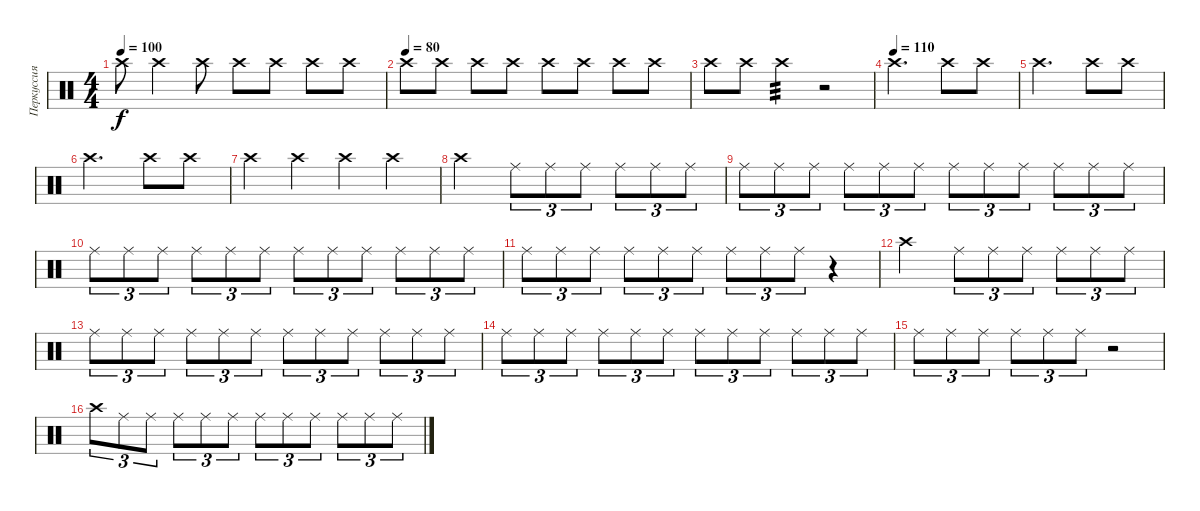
\track ("Перкуссия" "Перкуссия") {instrument percussion}
\staff {score}
\articulation defaults
\ts (4 4)
\tempo 100
\clef neutral
\ks c "Crash high (hit)".8{dy f} "Crash high (hit)".4 "Crash high (hit)".8 "Crash high (hit)".8 "Crash high (hit)".8 "Crash high (hit)".8 "Crash high (hit)".8
|
\tempo (80)
"Crash high (hit)".8 "Crash high (hit)".8 "Crash high (hit)".8 "Crash high (hit)".8 "Crash high (hit)".8 "Crash high (hit)".8 "Crash high (hit)".8 "Crash high (hit)".8 |
"Crash high (hit)".8 "Crash high (hit)".8 "Crash high (hit)".4{tp 3} r.2 |
\tempo (110)
"Crash high (hit)".2{d} "Crash high (hit)".8 "Crash high (hit)".8 |
"Crash high (hit)".2{d} "Crash high (hit)".8 "Crash high (hit)".8 |
"Crash high (hit)".2{d} "Crash high (hit)".8 "Crash high (hit)".8 |
"Crash high (hit)".4 "Crash high (hit)".4 "Crash high (hit)".4 "Crash high (hit)".4 |
"Crash high (hit)".2 "Ride (middle)".8{tu (3 2)} "Ride (middle)".8{tu (3 2)} "Ride (middle)".8{tu (3 2)} "Ride (middle)".8{tu (3 2)} "Ride (middle)".8{tu (3 2)} "Ride (middle)".8{tu (3 2)} |
"Ride (middle)".8{tu (3 2)} "Ride (middle)".8{tu (3 2)} "Ride (middle)".8{tu (3 2)} "Ride (middle)".8{tu (3 2)} "Ride (middle)".8{tu (3 2)} "Ride (middle)".8{tu (3 2)} "Ride (middle)".8{tu (3 2)} "Ride (middle)".8{tu (3 2)} "Ride (middle)".8{tu (3 2)} "Ride (middle)".8{tu (3 2)} "Ride (middle)".8{tu (3 2)} "Ride (middle)".8{tu (3 2)} |
"Ride (middle)".8{tu (3 2)} "Ride (middle)".8{tu (3 2)} "Ride (middle)".8{tu (3 2)} "Ride (middle)".8{tu (3 2)} "Ride (middle)".8{tu (3 2)} "Ride (middle)".8{tu (3 2)} "Ride (middle)".8{tu (3 2)} "Ride (middle)".8{tu (3 2)} "Ride (middle)".8{tu (3 2)} "Ride (middle)".8{tu (3 2)} "Ride (middle)".8{tu (3 2)} "Ride (middle)".8{tu (3 2)} |
"Ride (middle)".8{tu (3 2)} "Ride (middle)".8{tu (3 2)} "Ride (middle)".8{tu (3 2)} "Ride (middle)".8{tu (3 2)} "Ride (middle)".8{tu (3 2)} "Ride (middle)".8{tu (3 2)} "Ride (middle)".8{tu (3 2)} "Ride (middle)".8{tu (3 2)} "Ride (middle)".8{tu (3 2)} r.4 |
"Crash high (hit)".2 "Ride (middle)".8{tu (3 2)} "Ride (middle)".8{tu (3 2)} "Ride (middle)".8{tu (3 2)} "Ride (middle)".8{tu (3 2)} "Ride (middle)".8{tu (3 2)} "Ride (middle)".8{tu (3 2)} |
"Ride (middle)".8{tu (3 2)} "Ride (middle)".8{tu (3 2)} "Ride (middle)".8{tu (3 2)} "Ride (middle)".8{tu (3 2)} "Ride (middle)".8{tu (3 2)} "Ride (middle)".8{tu (3 2)} "Ride (middle)".8{tu (3 2)} "Ride (middle)".8{tu (3 2)} "Ride (middle)".8{tu (3 2)} "Ride (middle)".8{tu (3 2)} "Ride (middle)".8{tu (3 2)} "Ride (middle)".8{tu (3 2)} |
"Ride (middle)".8{tu (3 2)} "Ride (middle)".8{tu (3 2)} "Ride (middle)".8{tu (3 2)} "Ride (middle)".8{tu (3 2)} "Ride (middle)".8{tu (3 2)} "Ride (middle)".8{tu (3 2)} "Ride (middle)".8{tu (3 2)} "Ride (middle)".8{tu (3 2)} "Ride (middle)".8{tu (3 2)} "Ride (middle)".8{tu (3 2)} "Ride (middle)".8{tu (3 2)} "Ride (middle)".8{tu (3 2)} |
"Ride (middle)".8{tu (3 2)} "Ride (middle)".8{tu (3 2)} "Ride (middle)".8{tu (3 2)} "Ride (middle)".8{tu (3 2)} "Ride (middle)".8{tu (3 2)} "Ride (middle)".8{tu (3 2)} r.2 |
"Crash high (hit)".8{tu (3 2)} "Ride (middle)".8{tu (3 2)} "Ride (middle)".8{tu (3 2)} "Ride (middle)".8{tu (3 2)} "Ride (middle)".8{tu (3 2)} "Ride (middle)".8{tu (3 2)} "Ride (middle)".8{tu (3 2)} "Ride (middle)".8{tu (3 2)} "Ride (middle)".8{tu (3 2)} "Ride (middle)".8{tu (3 2)} "Ride (middle)".8{tu (3 2)} "Ride (middle)".8{tu (3 2)}
